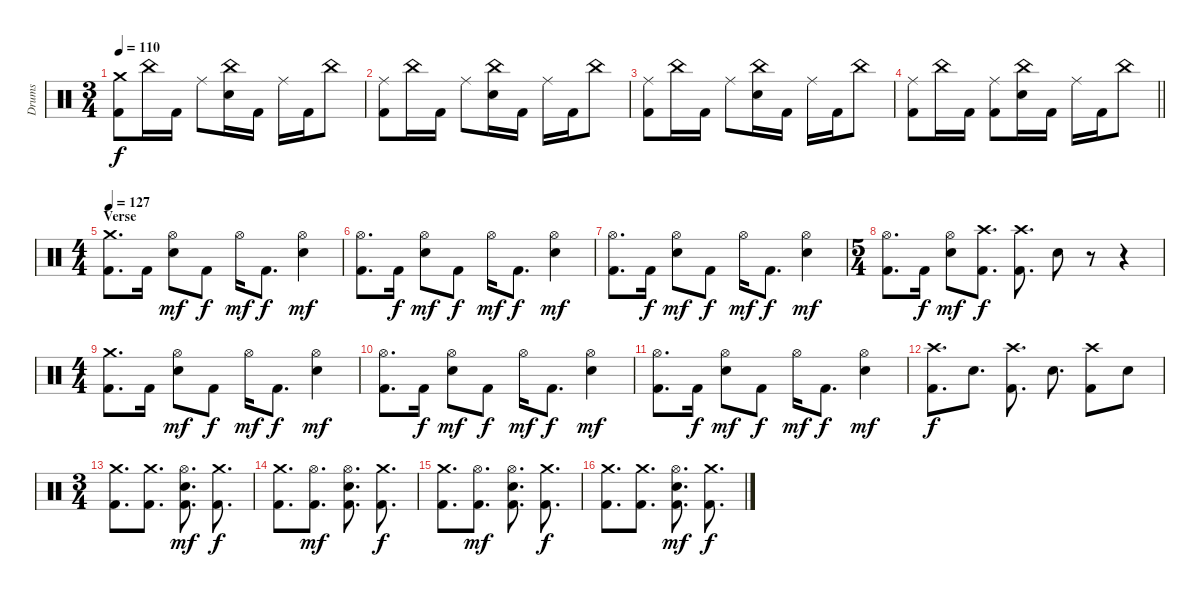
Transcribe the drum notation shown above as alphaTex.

\track ("Drums" "Drums") {instrument percussion}
\staff {score}
\articulation defaults
\ts (3 4)
\tempo 110
\clef neutral
\ks c
("Kick (hit) 2" "Crash medium (hit)").8{dy f} "China (hit)".16 "Kick (hit) 2".16 "Ride (middle)".8 ("China (hit)" "Electric Snare (hit)").16 "Kick (hit) 2".16 "Ride (middle)".16 "Kick (hit) 2".16 "China (hit)".8 |
("Kick (hit) 2" "Ride (middle)").8 "China (hit)".16 "Kick (hit) 2".16 "Ride (middle)".8 ("China (hit)" "Electric Snare (hit)").16 "Kick (hit) 2".16 "Ride (middle)".16 "Kick (hit) 2".16 "China (hit)".8 |
("Kick (hit) 2" "Ride (middle)").8 "China (hit)".16 "Kick (hit) 2".16 "Ride (middle)".8 ("China (hit)" "Electric Snare (hit)").16 "Kick (hit) 2".16 "Ride (middle)".16 "Kick (hit) 2".16 "China (hit)".8 |
\barLineRight lightlight
("Kick (hit) 2" "Ride (middle)").8 "China (hit)".16 "Kick (hit) 2".16 ("Kick (hit) 2" "Ride (middle)").8 ("China (hit)" "Electric Snare (hit)").16 "Kick (hit) 2".16 "Ride (middle)".16 "Kick (hit) 2".16 "China (hit)".8 |
\ts (4 4)
\section ("" "Verse")
\tempo 127
("Kick (hit) 2" "Crash medium (hit)").8{d} "Kick (hit) 2".16 ("Hi-Hat (open)" "Electric Snare (hit)").8{dy mf} "Kick (hit) 2".8{dy f} "Hi-Hat (open)".16{dy mf} "Kick (hit) 2".8{d dy f} ("Hi-Hat (open)" "Electric Snare (hit)").4{dy mf} |
("Kick (hit) 2" "Hi-Hat (open)").8{d} "Kick (hit) 2".16{dy f} ("Hi-Hat (open)" "Electric Snare (hit)").8{dy mf} "Kick (hit) 2".8{dy f} "Hi-Hat (open)".16{dy mf} "Kick (hit) 2".8{d dy f} ("Hi-Hat (open)" "Electric Snare (hit)").4{dy mf} |
("Kick (hit) 2" "Hi-Hat (open)").8{d} "Kick (hit) 2".16{dy f} ("Hi-Hat (open)" "Electric Snare (hit)").8{dy mf} "Kick (hit) 2".8{dy f} "Hi-Hat (open)".16{dy mf} "Kick (hit) 2".8{d dy f} ("Hi-Hat (open)" "Electric Snare (hit)").4{dy mf} |
\ts (5 4)
("Kick (hit) 2" "Hi-Hat (open)").8{d} "Kick (hit) 2".16{dy f} ("Hi-Hat (open)" "Electric Snare (hit)").8{dy mf} ("Kick (hit) 2" "Crash high (hit)").8{d dy f} ("Kick (hit) 2" "Crash high (hit)").8{d} "Electric Snare (hit)".8 r.8 r.4 |
\ts (4 4)
("Kick (hit) 2" "Crash medium (hit)").8{d} "Kick (hit) 2".16 ("Hi-Hat (open)" "Electric Snare (hit)").8{dy mf} "Kick (hit) 2".8{dy f} "Hi-Hat (open)".16{dy mf} "Kick (hit) 2".8{d dy f} ("Hi-Hat (open)" "Electric Snare (hit)").4{dy mf} |
("Kick (hit) 2" "Hi-Hat (open)").8{d} "Kick (hit) 2".16{dy f} ("Hi-Hat (open)" "Electric Snare (hit)").8{dy mf} "Kick (hit) 2".8{dy f} "Hi-Hat (open)".16{dy mf} "Kick (hit) 2".8{d dy f} ("Hi-Hat (open)" "Electric Snare (hit)").4{dy mf} |
("Kick (hit) 2" "Hi-Hat (open)").8{d} "Kick (hit) 2".16{dy f} ("Hi-Hat (open)" "Electric Snare (hit)").8{dy mf} "Kick (hit) 2".8{dy f} "Hi-Hat (open)".16{dy mf} "Kick (hit) 2".8{d dy f} ("Hi-Hat (open)" "Electric Snare (hit)").4{dy mf} |
("Kick (hit) 2" "Crash high (hit)").8{d dy f} "Electric Snare (hit)".8{d} ("Kick (hit) 2" "Crash high (hit)").8{d} "Electric Snare (hit)".8{d} ("Kick (hit) 2" "Crash high (hit)").8 "Electric Snare (hit)".8 |
\ts (3 4)
("Kick (hit) 2" "Crash medium (hit)").8{d} ("Kick (hit) 2" "Crash medium (hit)").8{d} ("Kick (hit) 2" "Hi-Hat (open)" "Electric Snare (hit)").8{d dy mf} ("Kick (hit) 2" "Crash medium (hit)").8{d dy f} |
("Kick (hit) 2" "Crash medium (hit)").8{d} ("Kick (hit) 2" "Hi-Hat (open)").8{d dy mf} ("Kick (hit) 2" "Hi-Hat (open)" "Electric Snare (hit)").8{d} ("Kick (hit) 2" "Crash medium (hit)").8{d dy f} |
("Kick (hit) 2" "Crash medium (hit)").8{d} ("Kick (hit) 2" "Hi-Hat (open)").8{d dy mf} ("Kick (hit) 2" "Hi-Hat (open)" "Electric Snare (hit)").8{d} ("Kick (hit) 2" "Crash medium (hit)").8{d dy f} |
("Kick (hit) 2" "Crash medium (hit)").8{d} ("Kick (hit) 2" "Crash medium (hit)").8{d} ("Kick (hit) 2" "Hi-Hat (open)" "Electric Snare (hit)").8{d dy mf} ("Kick (hit) 2" "Crash medium (hit)").8{d dy f}
